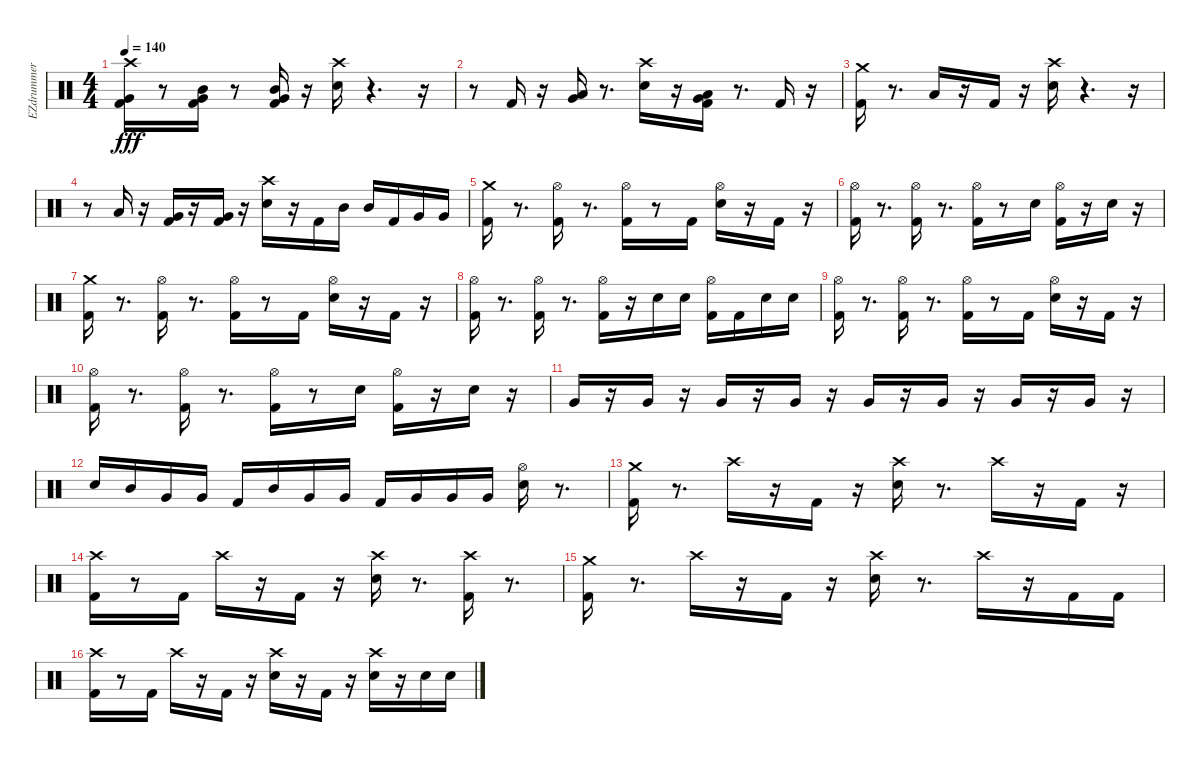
\track ("EZdrummer" "EZdrummer") {instrument percussion}
\staff {score}
\articulation defaults
\ts (4 4)
\tempo 140
\clef neutral
\ks c
("Crash high (hit)" "Kick (hit) 2" "Very Low Tom (hit)").16{dy fff} r.8 ("Kick (hit) 2" "Very Low Tom (hit)" "Mid Tom (hit)").16 r.8 ("Kick (hit) 2" "Very Low Tom (hit)" "Mid Tom (hit)").16 r.16 ("Crash high (hit)" "Snare (hit) 2").16 r.4{d} r.16 |
r.8 "Kick (hit) 2".16 r.16 ("Low Floor Tom (hit)" "Very Low Tom (hit)").16 r.8{d} ("Crash high (hit)" "Snare (hit) 2").16 r.16 ("Kick (hit) 2" "Low Floor Tom (hit)" "Very Low Tom (hit)").16 r.8{d} "Kick (hit) 2".16 r.16 |
("Kick (hit) 2" "Crash medium (hit)").16 r.8{d} "Low Tom (hit)".16 r.16 "Kick (hit) 2".16 r.16 ("Crash high (hit)" "Snare (hit) 2").16 r.4{d} r.16 |
r.8 "Low Tom (hit)".16 r.16 ("Kick (hit) 2" "Very Low Tom (hit)").16 r.16 ("Kick (hit) 2" "Very Low Tom (hit)").16 r.16 ("Crash high (hit)" "Snare (hit) 2").16 r.16 "Kick (hit) 2".16 "Mid Tom (hit)".16 "Mid Tom (hit)".16 "Kick (hit) 2".16 "Very Low Tom (hit)".16 "Very Low Tom (hit)".16 |
("Kick (hit) 2" "Crash medium (hit)").16 r.8{d} ("Hi-Hat (open)" "Kick (hit) 2").16 r.8{d} ("Hi-Hat (open)" "Kick (hit) 2").16 r.8 "Kick (hit) 2".16 ("Hi-Hat (open)" "Snare (hit) 2").16 r.16 "Kick (hit) 2".16 r.16 |
("Hi-Hat (open)" "Kick (hit) 2").16 r.8{d} ("Hi-Hat (open)" "Kick (hit) 2").16 r.8{d} ("Hi-Hat (open)" "Kick (hit) 2").16 r.8 "Snare (hit) 2".16 ("Hi-Hat (open)" "Kick (hit) 2").16 r.16 "Snare (hit) 2".16 r.16 |
("Kick (hit) 2" "Crash medium (hit)").16 r.8{d} ("Hi-Hat (open)" "Kick (hit) 2").16 r.8{d} ("Hi-Hat (open)" "Kick (hit) 2").16 r.8 "Kick (hit) 2".16 ("Hi-Hat (open)" "Snare (hit) 2").16 r.16 "Kick (hit) 2".16 r.16 |
("Hi-Hat (open)" "Kick (hit) 2").16 r.8{d} ("Hi-Hat (open)" "Kick (hit) 2").16 r.8{d} ("Hi-Hat (open)" "Kick (hit) 2").16 r.16 "Snare (hit) 2".16 "Snare (hit) 2".16 ("Hi-Hat (open)" "Kick (hit) 2").16 "Kick (hit) 2".16 "Snare (hit) 2".16 "Snare (hit) 2".16 |
("Hi-Hat (open)" "Kick (hit) 2").16 r.8{d} ("Hi-Hat (open)" "Kick (hit) 2").16 r.8{d} ("Hi-Hat (open)" "Kick (hit) 2").16 r.8 "Kick (hit) 2".16 ("Hi-Hat (open)" "Snare (hit) 2").16 r.16 "Kick (hit) 2".16 r.16 |
("Hi-Hat (open)" "Kick (hit) 2").16 r.8{d} ("Hi-Hat (open)" "Kick (hit) 2").16 r.8{d} ("Hi-Hat (open)" "Kick (hit) 2").16 r.8 "Snare (hit) 2".16 ("Hi-Hat (open)" "Kick (hit) 2").16 r.16 "Snare (hit) 2".16 r.16 |
"Very Low Tom (hit)".16 r.16 "Very Low Tom (hit)".16 r.16 "Very Low Tom (hit)".16 r.16 "Very Low Tom (hit)".16 r.16 "Very Low Tom (hit)".16 r.16 "Very Low Tom (hit)".16 r.16 "Very Low Tom (hit)".16 r.16 "Very Low Tom (hit)".16 r.16 |
"Snare (hit) 2".16 "Mid Tom (hit)".16 "Very Low Tom (hit)".16 "Very Low Tom (hit)".16 "Kick (hit) 2".16 "Mid Tom (hit)".16 "Very Low Tom (hit)".16 "Very Low Tom (hit)".16 "Kick (hit) 2".16 "Very Low Tom (hit)".16 "Very Low Tom (hit)".16 "Very Low Tom (hit)".16 ("Hi-Hat (open)" "Snare (hit) 2").16 r.8{d} |
("Kick (hit) 2" "Crash medium (hit)").16 r.8{d} "Crash high (hit)".16 r.16 "Kick (hit) 2".16 r.16 ("Snare (hit) 2" "Crash high (hit)").16 r.8{d} "Crash high (hit)".16 r.16 "Kick (hit) 2".16 r.16 |
("Kick (hit) 2" "Crash high (hit)").16 r.8 "Kick (hit) 2".16 "Crash high (hit)".16 r.16 "Kick (hit) 2".16 r.16 ("Snare (hit) 2" "Crash high (hit)").16 r.8{d} ("Kick (hit) 2" "Crash high (hit)").16 r.8{d} |
("Kick (hit) 2" "Crash medium (hit)").16 r.8{d} "Crash high (hit)".16 r.16 "Kick (hit) 2".16 r.16 ("Snare (hit) 2" "Crash high (hit)").16 r.8{d} "Crash high (hit)".16 r.16 "Kick (hit) 2".16 "Kick (hit) 2".16 |
("Kick (hit) 2" "Crash high (hit)").16 r.8 "Kick (hit) 2".16 "Crash high (hit)".16 r.16 "Kick (hit) 2".16 r.16 ("Snare (hit) 2" "Crash high (hit)").16 r.16 "Kick (hit) 2".16 r.16 ("Snare (hit) 2" "Crash high (hit)").16 r.16 "Snare (hit) 2".16 "Snare (hit) 2".16
